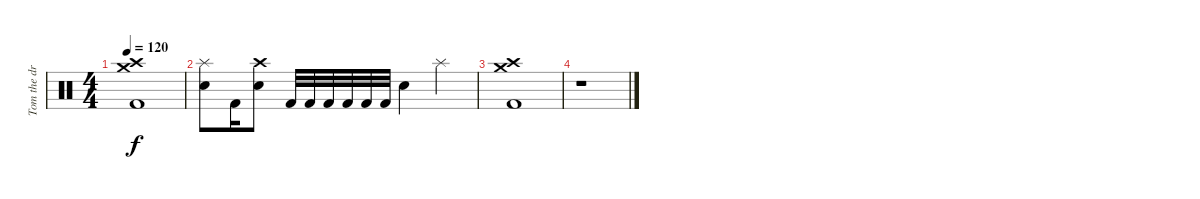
\track ("Tom the drummer" "Tom the dr") {instrument percussion}
\staff {score}
\articulation defaults
\ts (4 4)
\tempo 120
\clef neutral
\ks c
("Crash high (hit)" "Crash medium (hit)" "Kick (hit) 2").1{dy f} |
("Splash (hit)" "Snare (hit) 2").8 "Kick (hit) 2".16 ("Crash high (hit)" "Snare (hit) 2").8 "Kick (hit) 2".32 "Kick (hit) 2".32 "Kick (hit) 2".32 "Kick (hit) 2".32 "Kick (hit) 2".32 "Kick (hit) 2".32 "Snare (hit) 2".4 "Splash (hit)".4 |
("Crash high (hit)" "Crash medium (hit)" "Kick (hit) 2").1 |
r.1
